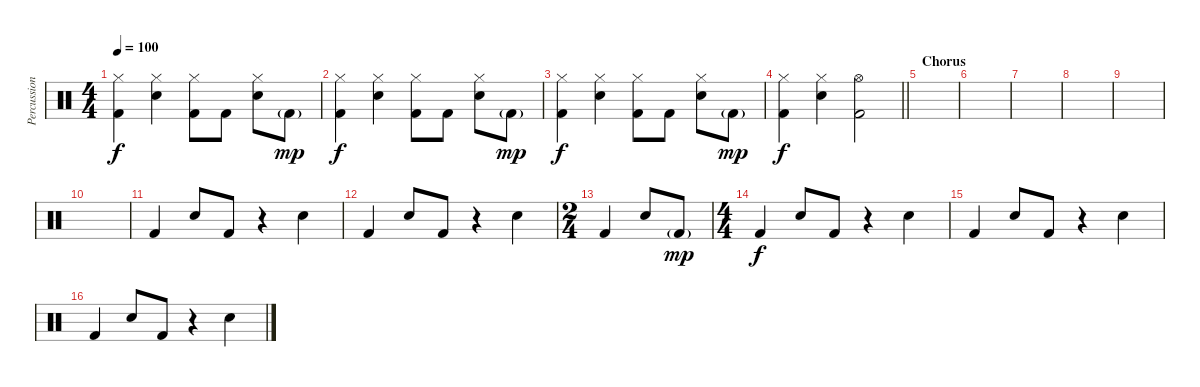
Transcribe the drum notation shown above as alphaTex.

\track ("Percussion" "Percussion") {instrument percussion}
\staff {score}
\articulation defaults
\ts (4 4)
\tempo 100
\clef neutral
\ks c
("Hi-Hat (closed)" "Kick (hit) 2").4{dy f} ("Hi-Hat (closed)" "Snare (hit) 2").4 ("Hi-Hat (closed)" "Kick (hit) 2").8 "Kick (hit) 2".8 ("Hi-Hat (closed)" "Snare (hit) 2").8 "Kick (hit) 2"{g}.8{dy mp} |
("Hi-Hat (closed)" "Kick (hit) 2").4{dy f} ("Hi-Hat (closed)" "Snare (hit) 2").4 ("Hi-Hat (closed)" "Kick (hit) 2").8 "Kick (hit) 2".8 ("Hi-Hat (closed)" "Snare (hit) 2").8 "Kick (hit) 2"{g}.8{dy mp} |
("Hi-Hat (closed)" "Kick (hit) 2").4{dy f} ("Hi-Hat (closed)" "Snare (hit) 2").4 ("Hi-Hat (closed)" "Kick (hit) 2").8 "Kick (hit) 2".8 ("Hi-Hat (closed)" "Snare (hit) 2").8 "Kick (hit) 2"{g}.8{dy mp} |
\barLineRight lightlight
("Hi-Hat (closed)" "Kick (hit) 2").4{dy f} ("Hi-Hat (closed)" "Snare (hit) 2").4 ("Hi-Hat (open)" "Kick (hit) 2").2 |
\section ("" "Chorus")
|
|
|
|
|
|
"Kick (hit) 2".4 "Snare (hit) 2".8 "Kick (hit) 2".8 r.4 "Snare (hit) 2".4 |
"Kick (hit) 2".4 "Snare (hit) 2".8 "Kick (hit) 2".8 r.4 "Snare (hit) 2".4 |
\ts (2 4)
"Kick (hit) 2".4 "Snare (hit) 2".8 "Kick (hit) 2"{g}.8{dy mp} |
\ts (4 4)
"Kick (hit) 2".4{dy f} "Snare (hit) 2".8 "Kick (hit) 2".8 r.4 "Snare (hit) 2".4 |
"Kick (hit) 2".4 "Snare (hit) 2".8 "Kick (hit) 2".8 r.4 "Snare (hit) 2".4 |
"Kick (hit) 2".4 "Snare (hit) 2".8 "Kick (hit) 2".8 r.4 "Snare (hit) 2".4
